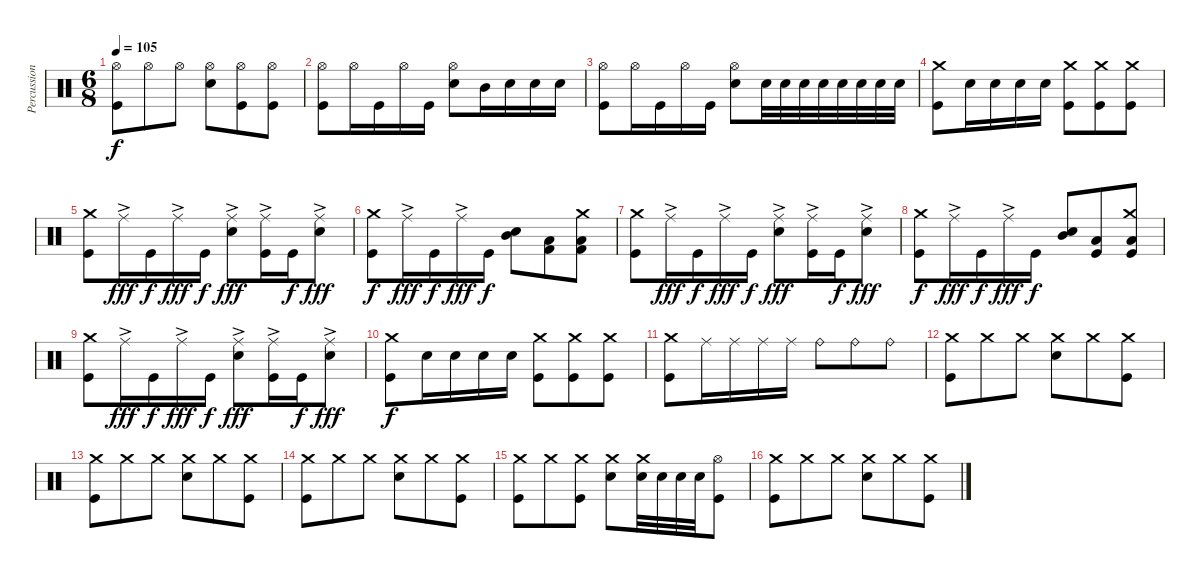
\track ("Percussion" "Percussion") {instrument percussion}
\staff {score}
\articulation defaults
\ts (6 8)
\tempo 105
\clef neutral
\ks c
("Hi-Hat (open)" "Kick (hit)").8{dy f} "Hi-Hat (open)".8 "Hi-Hat (open)".8 ("Hi-Hat (open)" "Electric Snare (hit)").8 ("Hi-Hat (open)" "Kick (hit)").8 ("Hi-Hat (open)" "Kick (hit)").8 |
("Hi-Hat (open)" "Kick (hit)").8 "Hi-Hat (open)".16 "Kick (hit)".16 "Hi-Hat (open)".16 "Kick (hit)".16 ("Hi-Hat (open)" "Electric Snare (hit)").8 "Mid Tom (hit)".16 "Electric Snare (hit)".16 "Electric Snare (hit)".16 "Electric Snare (hit)".16 |
("Hi-Hat (open)" "Kick (hit)").8 "Hi-Hat (open)".16 "Kick (hit)".16 "Hi-Hat (open)".16 "Kick (hit)".16 ("Hi-Hat (open)" "Electric Snare (hit)").8 "Electric Snare (hit)".32 "Electric Snare (hit)".32 "Electric Snare (hit)".32 "Electric Snare (hit)".32 "Electric Snare (hit)".32 "Electric Snare (hit)".32 "Electric Snare (hit)".32 "Electric Snare (hit)".32 |
("Crash medium (hit)" "Kick (hit)").8 "Electric Snare (hit)".16 "Electric Snare (hit)".16 "Electric Snare (hit)".16 "Electric Snare (hit)".16 ("Crash medium (hit)" "Kick (hit)").8 ("Crash medium (hit)" "Kick (hit)").8 ("Crash medium (hit)" "Kick (hit)").8 |
("Crash medium (hit)" "Kick (hit)").8 "Ride (middle)"{ac}.16{dy fff} "Kick (hit)".16{dy f} "Ride (middle)"{ac}.16{dy fff} "Kick (hit)".16{dy f} ("Ride (middle)"{ac} "Electric Snare (hit)").8{dy fff} ("Ride (middle)"{ac} "Kick (hit)").16 "Kick (hit)".16{dy f} ("Ride (middle)"{ac} "Electric Snare (hit)").8{dy fff} |
("Crash medium (hit)" "Kick (hit)").8{dy f} "Ride (middle)"{ac}.16{dy fff} "Kick (hit)".16{dy f} "Ride (middle)"{ac}.16{dy fff} "Kick (hit)".16{dy f} ("Electric Snare (hit)" "Mid Tom (hit)").8 ("Low Tom (hit)" "Kick (hit) 2").8 ("Crash medium (hit)" "Low Floor Tom (hit)" "Kick (hit) 2").8 |
("Crash medium (hit)" "Kick (hit)").8 "Ride (middle)"{ac}.16{dy fff} "Kick (hit)".16{dy f} "Ride (middle)"{ac}.16{dy fff} "Kick (hit)".16{dy f} ("Ride (middle)"{ac} "Electric Snare (hit)").8{dy fff} ("Ride (middle)"{ac} "Kick (hit)").16 "Kick (hit)".16{dy f} ("Ride (middle)"{ac} "Electric Snare (hit)").8{dy fff} |
("Crash medium (hit)" "Kick (hit)").8{dy f} "Ride (middle)"{ac}.16{dy fff} "Kick (hit)".16{dy f} "Ride (middle)"{ac}.16{dy fff} "Kick (hit)".16{dy f} ("Electric Snare (hit)" "Mid Tom (hit)").8 ("Low Tom (hit)" "Kick (hit)").8 ("Crash medium (hit)" "Low Floor Tom (hit)" "Kick (hit)").8 |
("Crash medium (hit)" "Kick (hit)").8 "Ride (middle)"{ac}.16{dy fff} "Kick (hit)".16{dy f} "Ride (middle)"{ac}.16{dy fff} "Kick (hit)".16{dy f} ("Ride (middle)"{ac} "Electric Snare (hit)").8{dy fff} ("Ride (middle)"{ac} "Kick (hit)").16 "Kick (hit)".16{dy f} ("Ride (middle)"{ac} "Electric Snare (hit)").8{dy fff} |
("Crash medium (hit)" "Kick (hit)").8{dy f} "Electric Snare (hit)".16 "Electric Snare (hit)".16 "Electric Snare (hit)".16 "Electric Snare (hit)".16 ("Crash medium (hit)" "Kick (hit)").8 ("Crash medium (hit)" "Kick (hit)").8 ("Crash medium (hit)" "Kick (hit)").8 |
("Crash medium (hit)" "Kick (hit)").8 "Ride (middle)".16 "Ride (middle)".16 "Ride (middle)".16 "Ride (middle)".16 "Ride (bell)".8 "Ride (bell)".8 "Ride (bell)".8 |
("Crash medium (hit)" "Kick (hit)").8 "Crash medium (hit)".8 "Crash medium (hit)".8 ("Crash medium (hit)" "Electric Snare (hit)").8 "Crash medium (hit)".8 ("Crash medium (hit)" "Kick (hit)").8 |
("Crash medium (hit)" "Kick (hit)").8 "Crash medium (hit)".8 "Crash medium (hit)".8 ("Crash medium (hit)" "Electric Snare (hit)").8 "Crash medium (hit)".8 ("Crash medium (hit)" "Kick (hit)").8 |
("Crash medium (hit)" "Kick (hit)").8 "Crash medium (hit)".8 "Crash medium (hit)".8 ("Crash medium (hit)" "Electric Snare (hit)").8 "Crash medium (hit)".8 ("Crash medium (hit)" "Kick (hit)").8 |
("Crash medium (hit)" "Kick (hit)").8 "Crash medium (hit)".8 ("Crash medium (hit)" "Kick (hit)").8 ("Crash medium (hit)" "Electric Snare (hit)").8 ("Crash medium (hit)" "Electric Snare (hit)").32 "Electric Snare (hit)".32 "Electric Snare (hit)".32 "Electric Snare (hit)".32 ("Hi-Hat (open)" "Kick (hit)").8 |
("Crash medium (hit)" "Kick (hit)").8 "Crash medium (hit)".8 "Crash medium (hit)".8 ("Crash medium (hit)" "Electric Snare (hit)").8 "Crash medium (hit)".8 ("Crash medium (hit)" "Kick (hit)").8
